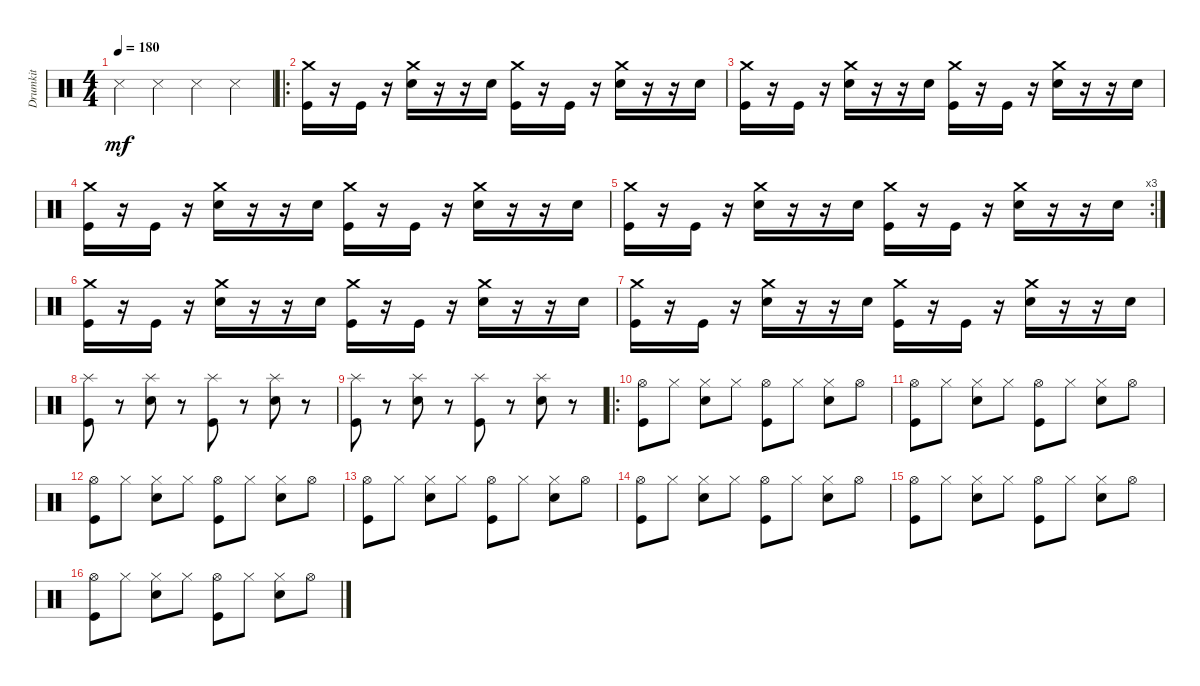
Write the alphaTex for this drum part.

\track ("Drumkit" "Drumkit") {instrument percussion}
\staff {score}
\articulation defaults
\ts (4 4)
\tempo 180
\clef neutral
\ks c "Snare (side stick) 3".4{dy mf} "Snare (side stick) 3".4 "Snare (side stick) 3".4 "Snare (side stick) 3".4
|
\ro
("Kick (hit)" "Crash medium (hit)").16 r.16 "Kick (hit)".16 r.16 ("Snare (hit) 2" "Crash medium (hit)").16 r.16 r.16 "Snare (hit) 2".16 ("Kick (hit)" "Crash medium (hit)").16 r.16 "Kick (hit)".16 r.16 ("Snare (hit) 2" "Crash medium (hit)").16 r.16 r.16 "Snare (hit) 2".16 |
("Kick (hit)" "Crash medium (hit)").16 r.16 "Kick (hit)".16 r.16 ("Snare (hit) 2" "Crash medium (hit)").16 r.16 r.16 "Snare (hit) 2".16 ("Kick (hit)" "Crash medium (hit)").16 r.16 "Kick (hit)".16 r.16 ("Snare (hit) 2" "Crash medium (hit)").16 r.16 r.16 "Snare (hit) 2".16 |
("Kick (hit)" "Crash medium (hit)").16 r.16 "Kick (hit)".16 r.16 ("Snare (hit) 2" "Crash medium (hit)").16 r.16 r.16 "Snare (hit) 2".16 ("Kick (hit)" "Crash medium (hit)").16 r.16 "Kick (hit)".16 r.16 ("Snare (hit) 2" "Crash medium (hit)").16 r.16 r.16 "Snare (hit) 2".16 |
\rc 3
("Kick (hit)" "Crash medium (hit)").16 r.16 "Kick (hit)".16 r.16 ("Snare (hit) 2" "Crash medium (hit)").16 r.16 r.16 "Snare (hit) 2".16 ("Kick (hit)" "Crash medium (hit)").16 r.16 "Kick (hit)".16 r.16 ("Snare (hit) 2" "Crash medium (hit)").16 r.16 r.16 "Snare (hit) 2".16 |
("Kick (hit)" "Crash medium (hit)").16 r.16 "Kick (hit)".16 r.16 ("Snare (hit) 2" "Crash medium (hit)").16 r.16 r.16 "Snare (hit) 2".16 ("Kick (hit)" "Crash medium (hit)").16 r.16 "Kick (hit)".16 r.16 ("Snare (hit) 2" "Crash medium (hit)").16 r.16 r.16 "Snare (hit) 2".16 |
("Kick (hit)" "Crash medium (hit)").16 r.16 "Kick (hit)".16 r.16 ("Snare (hit) 2" "Crash medium (hit)").16 r.16 r.16 "Snare (hit) 2".16 ("Kick (hit)" "Crash medium (hit)").16 r.16 "Kick (hit)".16 r.16 ("Snare (hit) 2" "Crash medium (hit)").16 r.16 r.16 "Snare (hit) 2".16 |
("Kick (hit)" "Splash (hit)").8 r.8 ("Snare (hit) 2" "Splash (hit)").8 r.8 ("Kick (hit)" "Splash (hit)").8 r.8 ("Snare (hit) 2" "Splash (hit)").8 r.8 |
("Kick (hit)" "Splash (hit)").8 r.8 ("Snare (hit) 2" "Splash (hit)").8 r.8 ("Kick (hit)" "Splash (hit)").8 r.8 ("Snare (hit) 2" "Splash (hit)").8 r.8 |
\ro
("Kick (hit)" "Hi-Hat (open)").8 "Hi-Hat (closed)".8 ("Snare (hit) 2" "Hi-Hat (closed)").8 "Hi-Hat (closed)".8 ("Kick (hit)" "Hi-Hat (open)").8 "Hi-Hat (closed)".8 ("Snare (hit) 2" "Hi-Hat (closed)").8 "Hi-Hat (open)".8 |
("Kick (hit)" "Hi-Hat (open)").8 "Hi-Hat (closed)".8 ("Snare (hit) 2" "Hi-Hat (closed)").8 "Hi-Hat (closed)".8 ("Kick (hit)" "Hi-Hat (open)").8 "Hi-Hat (closed)".8 ("Snare (hit) 2" "Hi-Hat (closed)").8 "Hi-Hat (open)".8 |
("Kick (hit)" "Hi-Hat (open)").8 "Hi-Hat (closed)".8 ("Snare (hit) 2" "Hi-Hat (closed)").8 "Hi-Hat (closed)".8 ("Kick (hit)" "Hi-Hat (open)").8 "Hi-Hat (closed)".8 ("Snare (hit) 2" "Hi-Hat (closed)").8 "Hi-Hat (open)".8 |
("Kick (hit)" "Hi-Hat (open)").8 "Hi-Hat (closed)".8 ("Snare (hit) 2" "Hi-Hat (closed)").8 "Hi-Hat (closed)".8 ("Kick (hit)" "Hi-Hat (open)").8 "Hi-Hat (closed)".8 ("Snare (hit) 2" "Hi-Hat (closed)").8 "Hi-Hat (open)".8 |
("Kick (hit)" "Hi-Hat (open)").8 "Hi-Hat (closed)".8 ("Snare (hit) 2" "Hi-Hat (closed)").8 "Hi-Hat (closed)".8 ("Kick (hit)" "Hi-Hat (open)").8 "Hi-Hat (closed)".8 ("Snare (hit) 2" "Hi-Hat (closed)").8 "Hi-Hat (open)".8 |
("Kick (hit)" "Hi-Hat (open)").8 "Hi-Hat (closed)".8 ("Snare (hit) 2" "Hi-Hat (closed)").8 "Hi-Hat (closed)".8 ("Kick (hit)" "Hi-Hat (open)").8 "Hi-Hat (closed)".8 ("Snare (hit) 2" "Hi-Hat (closed)").8 "Hi-Hat (open)".8 |
("Kick (hit)" "Hi-Hat (open)").8 "Hi-Hat (closed)".8 ("Snare (hit) 2" "Hi-Hat (closed)").8 "Hi-Hat (closed)".8 ("Kick (hit)" "Hi-Hat (open)").8 "Hi-Hat (closed)".8 ("Snare (hit) 2" "Hi-Hat (closed)").8 "Hi-Hat (open)".8
